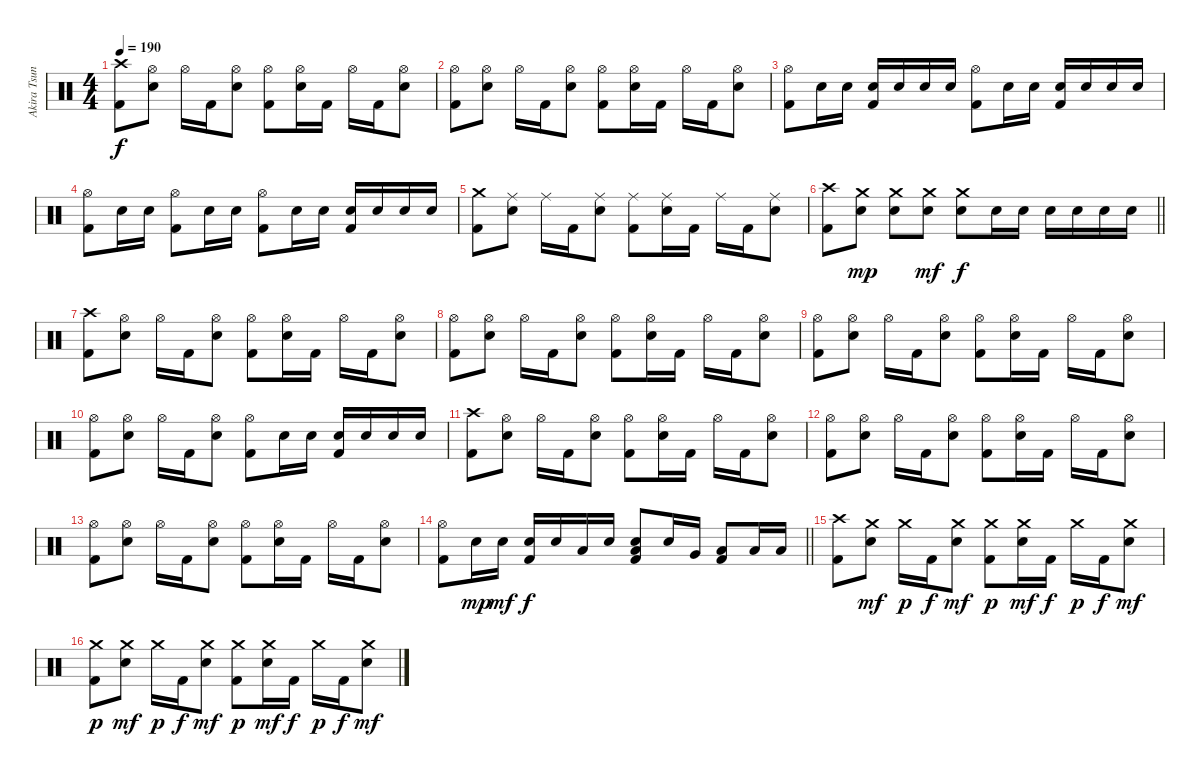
\track ("Akira Tsuneoka" "Akira Tsun") {instrument percussion}
\staff {score}
\articulation defaults
\ts (4 4)
\tempo 190
\clef neutral
\ks c
("Crash high (hit)" "Kick (hit) 2").8{dy f} ("Hi-Hat (open)" "Electric Snare (hit)").8 "Hi-Hat (open)".16 "Kick (hit) 2".16 ("Hi-Hat (open)" "Electric Snare (hit)").8 ("Hi-Hat (open)" "Kick (hit) 2").8 ("Hi-Hat (open)" "Electric Snare (hit)").16 "Kick (hit) 2".16 "Hi-Hat (open)".16 "Kick (hit) 2".16 ("Hi-Hat (open)" "Electric Snare (hit)").8 |
("Hi-Hat (open)" "Kick (hit) 2").8 ("Hi-Hat (open)" "Electric Snare (hit)").8 "Hi-Hat (open)".16 "Kick (hit) 2".16 ("Hi-Hat (open)" "Electric Snare (hit)").8 ("Hi-Hat (open)" "Kick (hit) 2").8 ("Hi-Hat (open)" "Electric Snare (hit)").16 "Kick (hit) 2".16 "Hi-Hat (open)".16 "Kick (hit) 2".16 ("Hi-Hat (open)" "Electric Snare (hit)").8 |
("Hi-Hat (open)" "Kick (hit) 2").8 "Electric Snare (hit)".16 "Electric Snare (hit)".16 ("Electric Snare (hit)" "Kick (hit) 2").16 "Electric Snare (hit)".16 "Electric Snare (hit)".16 "Electric Snare (hit)".16 ("Hi-Hat (open)" "Kick (hit) 2").8 "Electric Snare (hit)".16 "Electric Snare (hit)".16 ("Electric Snare (hit)" "Kick (hit) 2").16 "Electric Snare (hit)".16 "Electric Snare (hit)".16 "Electric Snare (hit)".16 |
("Hi-Hat (open)" "Kick (hit) 2").8 "Electric Snare (hit)".16 "Electric Snare (hit)".16 ("Hi-Hat (open)" "Kick (hit) 2").8 "Electric Snare (hit)".16 "Electric Snare (hit)".16 ("Hi-Hat (open)" "Kick (hit) 2").8 "Electric Snare (hit)".16 "Electric Snare (hit)".16 ("Electric Snare (hit)" "Kick (hit) 2").16 "Electric Snare (hit)".16 "Electric Snare (hit)".16 "Electric Snare (hit)".16 |
("Crash medium (hit)" "Kick (hit) 2").8 ("Ride (middle)" "Electric Snare (hit)").8 "Ride (middle)".16 "Kick (hit) 2".16 ("Ride (middle)" "Electric Snare (hit)").8 ("Ride (middle)" "Kick (hit) 2").8 ("Ride (middle)" "Electric Snare (hit)").16 "Kick (hit) 2".16 "Ride (middle)".16 "Kick (hit) 2".16 ("Ride (middle)" "Electric Snare (hit)").8 |
\barLineRight lightlight
("Crash high (hit)" "Kick (hit) 2").8 ("Crash medium (hit)" "Electric Snare (hit)").8{dy mp} ("Crash medium (hit)" "Electric Snare (hit)").8 ("Crash medium (hit)" "Electric Snare (hit)").8{dy mf} ("Crash medium (hit)" "Electric Snare (hit)").8{dy f} "Electric Snare (hit)".16 "Electric Snare (hit)".16 "Electric Snare (hit)".16 "Electric Snare (hit)".16 "Electric Snare (hit)".16 "Electric Snare (hit)".16 |
\section ("" "")
("Crash high (hit)" "Kick (hit) 2").8 ("Hi-Hat (open)" "Electric Snare (hit)").8 "Hi-Hat (open)".16 "Kick (hit) 2".16 ("Hi-Hat (open)" "Electric Snare (hit)").8 ("Hi-Hat (open)" "Kick (hit) 2").8 ("Hi-Hat (open)" "Electric Snare (hit)").16 "Kick (hit) 2".16 "Hi-Hat (open)".16 "Kick (hit) 2".16 ("Hi-Hat (open)" "Electric Snare (hit)").8 |
("Hi-Hat (open)" "Kick (hit) 2").8 ("Hi-Hat (open)" "Electric Snare (hit)").8 "Hi-Hat (open)".16 "Kick (hit) 2".16 ("Hi-Hat (open)" "Electric Snare (hit)").8 ("Hi-Hat (open)" "Kick (hit) 2").8 ("Hi-Hat (open)" "Electric Snare (hit)").16 "Kick (hit) 2".16 "Hi-Hat (open)".16 "Kick (hit) 2".16 ("Hi-Hat (open)" "Electric Snare (hit)").8 |
("Hi-Hat (open)" "Kick (hit) 2").8 ("Hi-Hat (open)" "Electric Snare (hit)").8 "Hi-Hat (open)".16 "Kick (hit) 2".16 ("Hi-Hat (open)" "Electric Snare (hit)").8 ("Hi-Hat (open)" "Kick (hit) 2").8 ("Hi-Hat (open)" "Electric Snare (hit)").16 "Kick (hit) 2".16 "Hi-Hat (open)".16 "Kick (hit) 2".16 ("Hi-Hat (open)" "Electric Snare (hit)").8 |
("Hi-Hat (open)" "Kick (hit) 2").8 ("Hi-Hat (open)" "Electric Snare (hit)").8 "Hi-Hat (open)".16 "Kick (hit) 2".16 ("Hi-Hat (open)" "Electric Snare (hit)").8 ("Hi-Hat (open)" "Kick (hit) 2").8 "Electric Snare (hit)".16 "Electric Snare (hit)".16 ("Electric Snare (hit)" "Kick (hit) 2").16 "Electric Snare (hit)".16 "Electric Snare (hit)".16 "Electric Snare (hit)".16 |
("Crash high (hit)" "Kick (hit) 2").8 ("Hi-Hat (open)" "Electric Snare (hit)").8 "Hi-Hat (open)".16 "Kick (hit) 2".16 ("Hi-Hat (open)" "Electric Snare (hit)").8 ("Hi-Hat (open)" "Kick (hit) 2").8 ("Hi-Hat (open)" "Electric Snare (hit)").16 "Kick (hit) 2".16 "Hi-Hat (open)".16 "Kick (hit) 2".16 ("Hi-Hat (open)" "Electric Snare (hit)").8 |
("Hi-Hat (open)" "Kick (hit) 2").8 ("Hi-Hat (open)" "Electric Snare (hit)").8 "Hi-Hat (open)".16 "Kick (hit) 2".16 ("Hi-Hat (open)" "Electric Snare (hit)").8 ("Hi-Hat (open)" "Kick (hit) 2").8 ("Hi-Hat (open)" "Electric Snare (hit)").16 "Kick (hit) 2".16 "Hi-Hat (open)".16 "Kick (hit) 2".16 ("Hi-Hat (open)" "Electric Snare (hit)").8 |
("Hi-Hat (open)" "Kick (hit) 2").8 ("Hi-Hat (open)" "Electric Snare (hit)").8 "Hi-Hat (open)".16 "Kick (hit) 2".16 ("Hi-Hat (open)" "Electric Snare (hit)").8 ("Hi-Hat (open)" "Kick (hit) 2").8 ("Hi-Hat (open)" "Electric Snare (hit)").16 "Kick (hit) 2".16 "Hi-Hat (open)".16 "Kick (hit) 2".16 ("Hi-Hat (open)" "Electric Snare (hit)").8 |
\barLineRight lightlight
("Hi-Hat (open)" "Kick (hit) 2").8 "Electric Snare (hit)".16{dy mp} "Electric Snare (hit)".16{dy mf} ("Electric Snare (hit)" "Kick (hit) 2").16{dy f} "Electric Snare (hit)".16 "Low Tom (hit)".16 "Electric Snare (hit)".16 ("Low Tom (hit)" "Electric Snare (hit)" "Kick (hit) 2").8 "Electric Snare (hit)".16 "Very Low Tom (hit)".16 ("Low Floor Tom (hit)" "Kick (hit) 2").8 "Low Floor Tom (hit)".16 "Low Floor Tom (hit)".16 |
\section ("" "")
("Crash high (hit)" "Kick (hit) 2").8 ("Crash medium (hit)" "Electric Snare (hit)").8{dy mf} "Crash medium (hit)".16{dy p} "Kick (hit) 2".16{dy f} ("Crash medium (hit)" "Electric Snare (hit)").8{dy mf} ("Crash medium (hit)" "Kick (hit) 2").8{dy p} ("Crash medium (hit)" "Electric Snare (hit)").16{dy mf} "Kick (hit) 2".16{dy f} "Crash medium (hit)".16{dy p} "Kick (hit) 2".16{dy f} ("Crash medium (hit)" "Electric Snare (hit)").8{dy mf} |
("Crash medium (hit)" "Kick (hit) 2").8{dy p} ("Crash medium (hit)" "Electric Snare (hit)").8{dy mf} "Crash medium (hit)".16{dy p} "Kick (hit) 2".16{dy f} ("Crash medium (hit)" "Electric Snare (hit)").8{dy mf} ("Crash medium (hit)" "Kick (hit) 2").8{dy p} ("Crash medium (hit)" "Electric Snare (hit)").16{dy mf} "Kick (hit) 2".16{dy f} "Crash medium (hit)".16{dy p} "Kick (hit) 2".16{dy f} ("Crash medium (hit)" "Electric Snare (hit)").8{dy mf}
